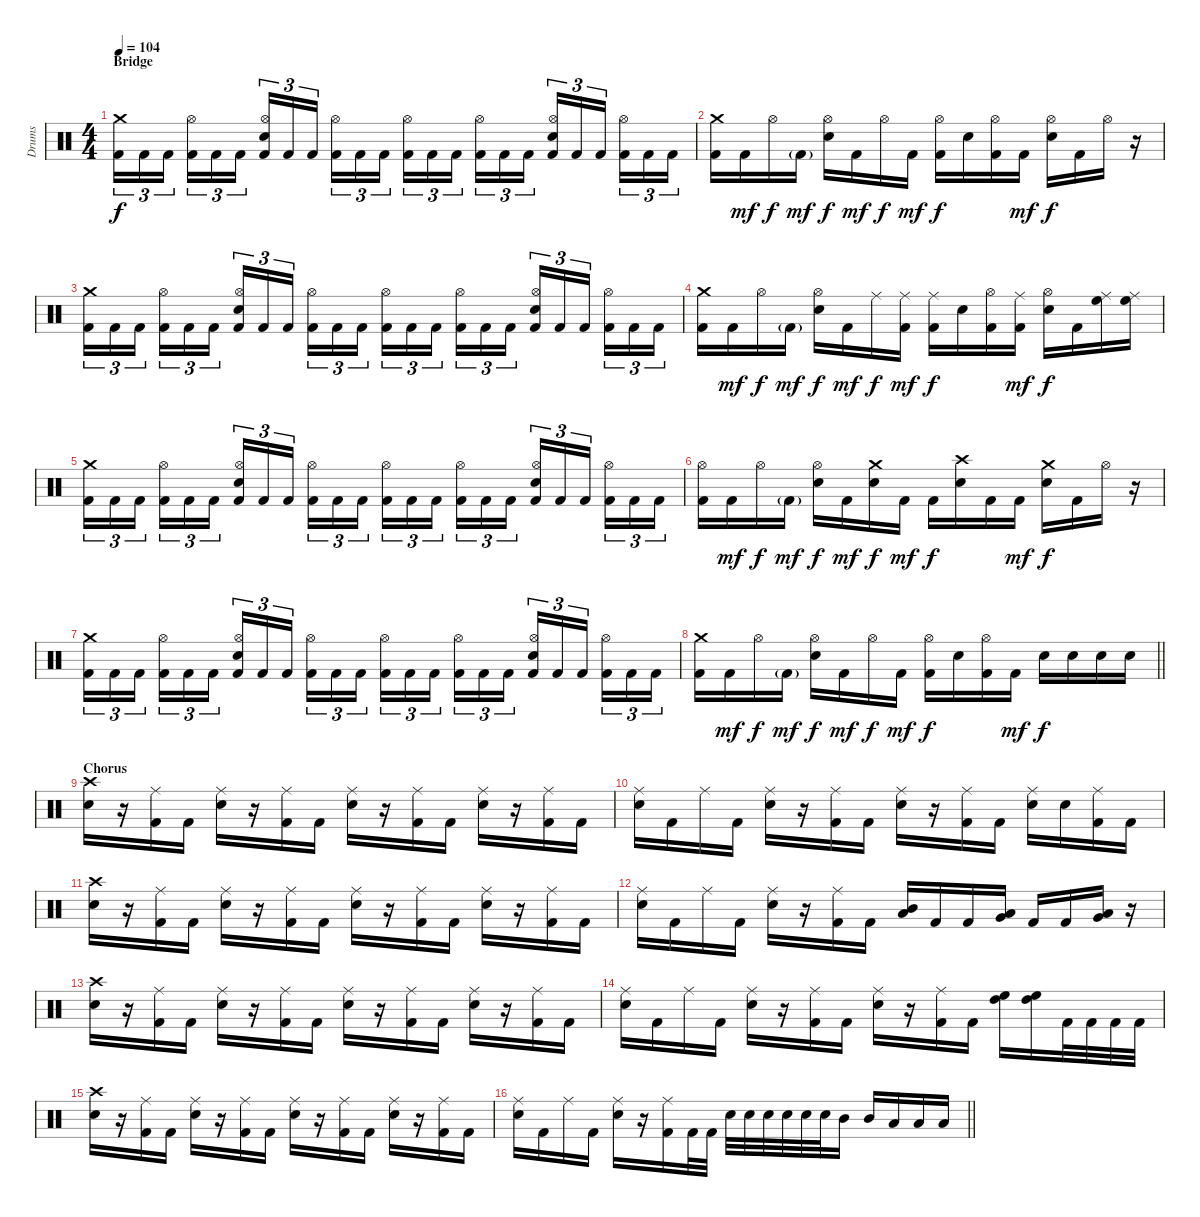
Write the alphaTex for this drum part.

\track ("Drums" "Drums") {instrument percussion}
\staff {score}
\articulation defaults
\ts (4 4)
\section ("" "Bridge")
\tempo 104
\clef neutral
\ks c
("Crash medium (hit)" "Kick (hit) 2").16{tu (3 2) dy f} "Kick (hit) 2".16{tu (3 2)} "Kick (hit) 2".16{tu (3 2) beam splitsecondary} ("Hi-Hat (open)" "Kick (hit) 2").16{tu (3 2)} "Kick (hit) 2".16{tu (3 2)} "Kick (hit) 2".16{tu (3 2)} ("Hi-Hat (open)" "Electric Snare (hit)" "Kick (hit) 2").16{tu (3 2)} "Kick (hit) 2".16{tu (3 2)} "Kick (hit) 2".16{tu (3 2) beam splitsecondary} ("Hi-Hat (open)" "Kick (hit) 2").16{tu (3 2)} "Kick (hit) 2".16{tu (3 2)} "Kick (hit) 2".16{tu (3 2)} ("Hi-Hat (open)" "Kick (hit) 2").16{tu (3 2)} "Kick (hit) 2".16{tu (3 2)} "Kick (hit) 2".16{tu (3 2) beam splitsecondary} ("Hi-Hat (open)" "Kick (hit) 2").16{tu (3 2)} "Kick (hit) 2".16{tu (3 2)} "Kick (hit) 2".16{tu (3 2)} ("Hi-Hat (open)" "Electric Snare (hit)" "Kick (hit) 2").16{tu (3 2)} "Kick (hit) 2".16{tu (3 2)} "Kick (hit) 2".16{tu (3 2) beam splitsecondary} ("Hi-Hat (open)" "Kick (hit) 2").16{tu (3 2)} "Kick (hit) 2".16{tu (3 2)} "Kick (hit) 2".16{tu (3 2)} |
("Crash medium (hit)" "Kick (hit) 2").16 "Kick (hit) 2".16{dy mf} "Hi-Hat (open)".16{dy f} "Kick (hit) 2"{g}.16{dy mf} ("Hi-Hat (open)" "Electric Snare (hit)").16{dy f} "Kick (hit) 2".16{dy mf} "Hi-Hat (open)".16{dy f} "Kick (hit) 2".16{dy mf} ("Hi-Hat (open)" "Kick (hit) 2").16{dy f} "Electric Snare (hit)".16 ("Hi-Hat (open)" "Kick (hit) 2").16 "Kick (hit) 2".16{dy mf} ("Hi-Hat (open)" "Electric Snare (hit)").16{dy f} "Kick (hit) 2".16 "Hi-Hat (open)".16 r.16 |
("Crash medium (hit)" "Kick (hit) 2").16{tu (3 2)} "Kick (hit) 2".16{tu (3 2)} "Kick (hit) 2".16{tu (3 2) beam splitsecondary} ("Hi-Hat (open)" "Kick (hit) 2").16{tu (3 2)} "Kick (hit) 2".16{tu (3 2)} "Kick (hit) 2".16{tu (3 2)} ("Hi-Hat (open)" "Electric Snare (hit)" "Kick (hit) 2").16{tu (3 2)} "Kick (hit) 2".16{tu (3 2)} "Kick (hit) 2".16{tu (3 2) beam splitsecondary} ("Hi-Hat (open)" "Kick (hit) 2").16{tu (3 2)} "Kick (hit) 2".16{tu (3 2)} "Kick (hit) 2".16{tu (3 2)} ("Hi-Hat (open)" "Kick (hit) 2").16{tu (3 2)} "Kick (hit) 2".16{tu (3 2)} "Kick (hit) 2".16{tu (3 2) beam splitsecondary} ("Hi-Hat (open)" "Kick (hit) 2").16{tu (3 2)} "Kick (hit) 2".16{tu (3 2)} "Kick (hit) 2".16{tu (3 2)} ("Hi-Hat (open)" "Electric Snare (hit)" "Kick (hit) 2").16{tu (3 2)} "Kick (hit) 2".16{tu (3 2)} "Kick (hit) 2".16{tu (3 2) beam splitsecondary} ("Hi-Hat (open)" "Kick (hit) 2").16{tu (3 2)} "Kick (hit) 2".16{tu (3 2)} "Kick (hit) 2".16{tu (3 2)} |
("Crash medium (hit)" "Kick (hit) 2").16 "Kick (hit) 2".16{dy mf} "Hi-Hat (open)".16{dy f} "Kick (hit) 2"{g}.16{dy mf} ("Hi-Hat (open)" "Electric Snare (hit)").16{dy f} "Kick (hit) 2".16{dy mf} "Ride (middle)".16{dy f} ("Ride (middle)" "Kick (hit) 2").16{dy mf} ("Ride (middle)" "Kick (hit) 2").16{dy f} "Electric Snare (hit)".16 ("Hi-Hat (open)" "Kick (hit) 2").16 ("Ride (middle)" "Kick (hit) 2").16{dy mf} ("Hi-Hat (open)" "Electric Snare (hit)").16{dy f} "Kick (hit) 2".16 ("Ride (middle)" "High Floor Tom (hit)").16 ("Ride (middle)" "High Floor Tom (hit)").16 |
("Crash medium (hit)" "Kick (hit) 2").16{tu (3 2)} "Kick (hit) 2".16{tu (3 2)} "Kick (hit) 2".16{tu (3 2) beam splitsecondary} ("Hi-Hat (open)" "Kick (hit) 2").16{tu (3 2)} "Kick (hit) 2".16{tu (3 2)} "Kick (hit) 2".16{tu (3 2)} ("Hi-Hat (open)" "Electric Snare (hit)" "Kick (hit) 2").16{tu (3 2)} "Kick (hit) 2".16{tu (3 2)} "Kick (hit) 2".16{tu (3 2) beam splitsecondary} ("Hi-Hat (open)" "Kick (hit) 2").16{tu (3 2)} "Kick (hit) 2".16{tu (3 2)} "Kick (hit) 2".16{tu (3 2)} ("Hi-Hat (open)" "Kick (hit) 2").16{tu (3 2)} "Kick (hit) 2".16{tu (3 2)} "Kick (hit) 2".16{tu (3 2) beam splitsecondary} ("Hi-Hat (open)" "Kick (hit) 2").16{tu (3 2)} "Kick (hit) 2".16{tu (3 2)} "Kick (hit) 2".16{tu (3 2)} ("Hi-Hat (open)" "Electric Snare (hit)" "Kick (hit) 2").16{tu (3 2)} "Kick (hit) 2".16{tu (3 2)} "Kick (hit) 2".16{tu (3 2) beam splitsecondary} ("Hi-Hat (open)" "Kick (hit) 2").16{tu (3 2)} "Kick (hit) 2".16{tu (3 2)} "Kick (hit) 2".16{tu (3 2)} |
("Hi-Hat (open)" "Kick (hit) 2").16 "Kick (hit) 2".16{dy mf} "Hi-Hat (open)".16{dy f} "Kick (hit) 2"{g}.16{dy mf} ("Hi-Hat (open)" "Electric Snare (hit)").16{dy f} "Kick (hit) 2".16{dy mf} ("Crash medium (hit)" "Electric Snare (hit)").16{dy f} "Kick (hit) 2".16{dy mf} "Kick (hit) 2".16{dy f} ("Crash high (hit)" "Electric Snare (hit)").16 "Kick (hit) 2".16 "Kick (hit) 2".16{dy mf} ("Crash medium (hit)" "Electric Snare (hit)").16{dy f} "Kick (hit) 2".16 "Hi-Hat (open)".16 r.16 |
("Crash medium (hit)" "Kick (hit) 2").16{tu (3 2)} "Kick (hit) 2".16{tu (3 2)} "Kick (hit) 2".16{tu (3 2) beam splitsecondary} ("Hi-Hat (open)" "Kick (hit) 2").16{tu (3 2)} "Kick (hit) 2".16{tu (3 2)} "Kick (hit) 2".16{tu (3 2)} ("Hi-Hat (open)" "Electric Snare (hit)" "Kick (hit) 2").16{tu (3 2)} "Kick (hit) 2".16{tu (3 2)} "Kick (hit) 2".16{tu (3 2) beam splitsecondary} ("Hi-Hat (open)" "Kick (hit) 2").16{tu (3 2)} "Kick (hit) 2".16{tu (3 2)} "Kick (hit) 2".16{tu (3 2)} ("Hi-Hat (open)" "Kick (hit) 2").16{tu (3 2)} "Kick (hit) 2".16{tu (3 2)} "Kick (hit) 2".16{tu (3 2) beam splitsecondary} ("Hi-Hat (open)" "Kick (hit) 2").16{tu (3 2)} "Kick (hit) 2".16{tu (3 2)} "Kick (hit) 2".16{tu (3 2)} ("Hi-Hat (open)" "Electric Snare (hit)" "Kick (hit) 2").16{tu (3 2)} "Kick (hit) 2".16{tu (3 2)} "Kick (hit) 2".16{tu (3 2) beam splitsecondary} ("Hi-Hat (open)" "Kick (hit) 2").16{tu (3 2)} "Kick (hit) 2".16{tu (3 2)} "Kick (hit) 2".16{tu (3 2)} |
\barLineRight lightlight
("Crash medium (hit)" "Kick (hit) 2").16 "Kick (hit) 2".16{dy mf} "Hi-Hat (open)".16{dy f} "Kick (hit) 2"{g}.16{dy mf} ("Hi-Hat (open)" "Electric Snare (hit)").16{dy f} "Kick (hit) 2".16{dy mf} "Hi-Hat (open)".16{dy f} "Kick (hit) 2".16{dy mf} ("Hi-Hat (open)" "Kick (hit) 2").16{dy f} "Electric Snare (hit)".16 ("Hi-Hat (open)" "Kick (hit) 2").16 "Kick (hit) 2".16{dy mf} "Electric Snare (hit)".16{dy f} "Electric Snare (hit)".16 "Electric Snare (hit)".16 "Electric Snare (hit)".16 |
\section ("" "Chorus")
("Crash high (hit)" "Electric Snare (hit)").16 r.16 ("Ride (middle)" "Kick (hit) 2").16 "Kick (hit) 2".16 ("Ride (middle)" "Electric Snare (hit)").16 r.16 ("Ride (middle)" "Kick (hit) 2").16 "Kick (hit) 2".16 ("Ride (middle)" "Electric Snare (hit)").16 r.16 ("Ride (middle)" "Kick (hit) 2").16 "Kick (hit) 2".16 ("Ride (middle)" "Electric Snare (hit)").16 r.16 ("Ride (middle)" "Kick (hit) 2").16 "Kick (hit) 2".16 |
("Ride (middle)" "Electric Snare (hit)").16 "Kick (hit) 2".16 "Ride (middle)".16 "Kick (hit) 2".16 ("Ride (middle)" "Electric Snare (hit)").16 r.16 ("Ride (middle)" "Kick (hit) 2").16 "Kick (hit) 2".16 ("Ride (middle)" "Electric Snare (hit)").16 r.16 ("Ride (middle)" "Kick (hit) 2").16 "Kick (hit) 2".16 ("Ride (middle)" "Electric Snare (hit)").16 "Electric Snare (hit)".16 ("Ride (middle)" "Kick (hit) 2").16 "Kick (hit) 2".16 |
("Crash high (hit)" "Electric Snare (hit)").16 r.16 ("Ride (middle)" "Kick (hit) 2").16 "Kick (hit) 2".16 ("Ride (middle)" "Electric Snare (hit)").16 r.16 ("Ride (middle)" "Kick (hit) 2").16 "Kick (hit) 2".16 ("Ride (middle)" "Electric Snare (hit)").16 r.16 ("Ride (middle)" "Kick (hit) 2").16 "Kick (hit) 2".16 ("Ride (middle)" "Electric Snare (hit)").16 r.16 ("Ride (middle)" "Kick (hit) 2").16 "Kick (hit) 2".16 |
("Ride (middle)" "Electric Snare (hit)").16 "Kick (hit) 2".16 "Ride (middle)".16 "Kick (hit) 2".16 ("Ride (middle)" "Electric Snare (hit)").16 r.16 ("Ride (middle)" "Kick (hit) 2").16 "Kick (hit) 2".16 ("Mid Tom (hit)" "Low Tom (hit)").16 "Kick (hit) 2".16 "Kick (hit) 2".16 ("Low Tom (hit)" "Very Low Tom (hit)").16 "Kick (hit) 2".16 "Kick (hit) 2".16 ("Very Low Tom (hit)" "Low Floor Tom (hit)").16 r.16 |
("Crash high (hit)" "Electric Snare (hit)").16 r.16 ("Ride (middle)" "Kick (hit) 2").16 "Kick (hit) 2".16 ("Ride (middle)" "Electric Snare (hit)").16 r.16 ("Ride (middle)" "Kick (hit) 2").16 "Kick (hit) 2".16 ("Ride (middle)" "Electric Snare (hit)").16 r.16 ("Ride (middle)" "Kick (hit) 2").16 "Kick (hit) 2".16 ("Ride (middle)" "Electric Snare (hit)").16 r.16 ("Ride (middle)" "Kick (hit) 2").16 "Kick (hit) 2".16 |
("Ride (middle)" "Electric Snare (hit)").16 "Kick (hit) 2".16 "Ride (middle)".16 "Kick (hit) 2".16 ("Ride (middle)" "Electric Snare (hit)").16 r.16 ("Ride (middle)" "Kick (hit) 2").16 "Kick (hit) 2".16 ("Ride (middle)" "Electric Snare (hit)").16 r.16 ("Ride (middle)" "Kick (hit) 2").16 "Kick (hit) 2".16 ("High Floor Tom (hit)" "High Tom (hit)").16 ("High Floor Tom (hit)" "High Tom (hit)").16 "Kick (hit) 2".32 "Kick (hit) 2".32 "Kick (hit) 2".32 "Kick (hit) 2".32 |
("Crash high (hit)" "Electric Snare (hit)").16 r.16 ("Ride (middle)" "Kick (hit) 2").16 "Kick (hit) 2".16 ("Ride (middle)" "Electric Snare (hit)").16 r.16 ("Ride (middle)" "Kick (hit) 2").16 "Kick (hit) 2".16 ("Ride (middle)" "Electric Snare (hit)").16 r.16 ("Ride (middle)" "Kick (hit) 2").16 "Kick (hit) 2".16 ("Ride (middle)" "Electric Snare (hit)").16 r.16 ("Ride (middle)" "Kick (hit) 2").16 "Kick (hit) 2".16 |
\barLineRight lightlight
("Ride (middle)" "Electric Snare (hit)").16 "Kick (hit) 2".16 "Ride (middle)".16 "Kick (hit) 2".16 ("Ride (middle)" "Electric Snare (hit)").16 r.16 ("Ride (middle)" "Kick (hit) 2").16 "Kick (hit) 2".32 "Kick (hit) 2".32 "Electric Snare (hit)".32 "Electric Snare (hit)".32 "Electric Snare (hit)".32 "Electric Snare (hit)".32 "Electric Snare (hit)".32 "Electric Snare (hit)".32 "Mid Tom (hit)".16 "Mid Tom (hit)".16 "Low Tom (hit)".16 "Low Tom (hit)".16 "Low Tom (hit)".16
